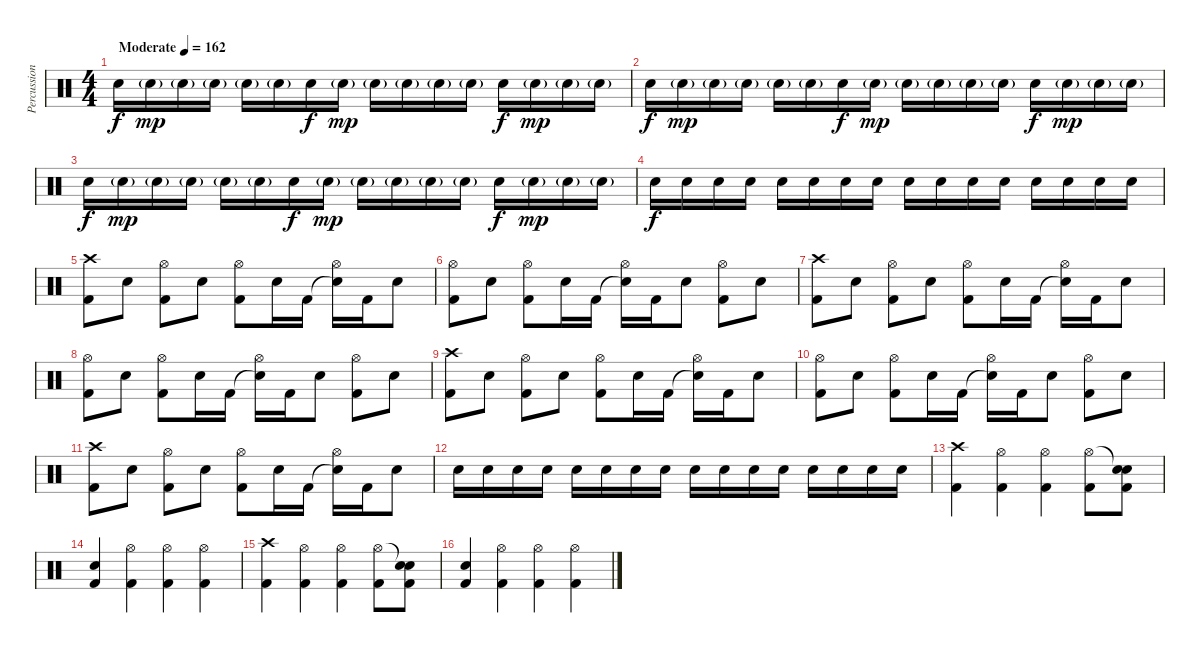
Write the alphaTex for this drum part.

\track ("Percussions" "Percussion") {instrument percussion}
\staff {score}
\articulation defaults
\ts (4 4)
\tempo (162 "Moderate")
\clef neutral
\ks c "Electric Snare (hit)".16{dy f} "Electric Snare (hit)"{g}.16{dy mp} "Electric Snare (hit)"{g}.16 "Electric Snare (hit)"{g}.16 "Electric Snare (hit)"{g}.16 "Electric Snare (hit)"{g}.16 "Electric Snare (hit)".16{dy f} "Electric Snare (hit)"{g}.16{dy mp} "Electric Snare (hit)"{g}.16 "Electric Snare (hit)"{g}.16 "Electric Snare (hit)"{g}.16 "Electric Snare (hit)"{g}.16 "Electric Snare (hit)".16{dy f} "Electric Snare (hit)"{g}.16{dy mp} "Electric Snare (hit)"{g}.16 "Electric Snare (hit)"{g}.16
|
"Electric Snare (hit)".16{dy f} "Electric Snare (hit)"{g}.16{dy mp} "Electric Snare (hit)"{g}.16 "Electric Snare (hit)"{g}.16 "Electric Snare (hit)"{g}.16 "Electric Snare (hit)"{g}.16 "Electric Snare (hit)".16{dy f} "Electric Snare (hit)"{g}.16{dy mp} "Electric Snare (hit)"{g}.16 "Electric Snare (hit)"{g}.16 "Electric Snare (hit)"{g}.16 "Electric Snare (hit)"{g}.16 "Electric Snare (hit)".16{dy f} "Electric Snare (hit)"{g}.16{dy mp} "Electric Snare (hit)"{g}.16 "Electric Snare (hit)"{g}.16 |
"Electric Snare (hit)".16{dy f} "Electric Snare (hit)"{g}.16{dy mp} "Electric Snare (hit)"{g}.16 "Electric Snare (hit)"{g}.16 "Electric Snare (hit)"{g}.16 "Electric Snare (hit)"{g}.16 "Electric Snare (hit)".16{dy f} "Electric Snare (hit)"{g}.16{dy mp} "Electric Snare (hit)"{g}.16 "Electric Snare (hit)"{g}.16 "Electric Snare (hit)"{g}.16 "Electric Snare (hit)"{g}.16 "Electric Snare (hit)".16{dy f} "Electric Snare (hit)"{g}.16{dy mp} "Electric Snare (hit)"{g}.16 "Electric Snare (hit)"{g}.16 |
"Electric Snare (hit)".16{dy f} "Electric Snare (hit)".16 "Electric Snare (hit)".16 "Electric Snare (hit)".16 "Electric Snare (hit)".16 "Electric Snare (hit)".16 "Electric Snare (hit)".16 "Electric Snare (hit)".16 "Electric Snare (hit)".16 "Electric Snare (hit)".16 "Electric Snare (hit)".16 "Electric Snare (hit)".16 "Electric Snare (hit)".16 "Electric Snare (hit)".16 "Electric Snare (hit)".16 "Electric Snare (hit)".16 |
("Kick (hit) 2" "Crash high (hit)").8 "Electric Snare (hit)".8 ("Kick (hit) 2" "Hi-Hat (open)").8 "Electric Snare (hit)".8 ("Kick (hit) 2" "Hi-Hat (open)").8 "Electric Snare (hit)".16 "Kick (hit) 2".16 ("Snare (hit)"{t} "Hi-Hat (open)").16 "Kick (hit) 2".16 "Electric Snare (hit)".8 |
("Kick (hit) 2" "Hi-Hat (open)").8 "Electric Snare (hit)".8 ("Kick (hit) 2" "Hi-Hat (open)").8 "Electric Snare (hit)".16 "Kick (hit) 2".16 ("Snare (hit)"{t} "Hi-Hat (open)").16 "Kick (hit) 2".16 "Electric Snare (hit)".8 ("Kick (hit) 2" "Hi-Hat (open)").8 "Electric Snare (hit)".8 |
("Kick (hit) 2" "Crash high (hit)").8 "Electric Snare (hit)".8 ("Kick (hit) 2" "Hi-Hat (open)").8 "Electric Snare (hit)".8 ("Kick (hit) 2" "Hi-Hat (open)").8 "Electric Snare (hit)".16 "Kick (hit) 2".16 ("Snare (hit)"{t} "Hi-Hat (open)").16 "Kick (hit) 2".16 "Electric Snare (hit)".8 |
("Kick (hit) 2" "Hi-Hat (open)").8 "Electric Snare (hit)".8 ("Kick (hit) 2" "Hi-Hat (open)").8 "Electric Snare (hit)".16 "Kick (hit) 2".16 ("Snare (hit)"{t} "Hi-Hat (open)").16 "Kick (hit) 2".16 "Electric Snare (hit)".8 ("Kick (hit) 2" "Hi-Hat (open)").8 "Electric Snare (hit)".8 |
("Kick (hit) 2" "Crash high (hit)").8 "Electric Snare (hit)".8 ("Kick (hit) 2" "Hi-Hat (open)").8 "Electric Snare (hit)".8 ("Kick (hit) 2" "Hi-Hat (open)").8 "Electric Snare (hit)".16 "Kick (hit) 2".16 ("Snare (hit)"{t} "Hi-Hat (open)").16 "Kick (hit) 2".16 "Electric Snare (hit)".8 |
("Kick (hit) 2" "Hi-Hat (open)").8 "Electric Snare (hit)".8 ("Kick (hit) 2" "Hi-Hat (open)").8 "Electric Snare (hit)".16 "Kick (hit) 2".16 ("Snare (hit)"{t} "Hi-Hat (open)").16 "Kick (hit) 2".16 "Electric Snare (hit)".8 ("Kick (hit) 2" "Hi-Hat (open)").8 "Electric Snare (hit)".8 |
("Kick (hit) 2" "Crash high (hit)").8 "Electric Snare (hit)".8 ("Kick (hit) 2" "Hi-Hat (open)").8 "Electric Snare (hit)".8 ("Kick (hit) 2" "Hi-Hat (open)").8 "Electric Snare (hit)".16 "Kick (hit) 2".16 ("Snare (hit)"{t} "Hi-Hat (open)").16 "Kick (hit) 2".16 "Electric Snare (hit)".8 |
"Electric Snare (hit)".16 "Electric Snare (hit)".16 "Electric Snare (hit)".16 "Electric Snare (hit)".16 "Electric Snare (hit)".16 "Electric Snare (hit)".16 "Electric Snare (hit)".16 "Electric Snare (hit)".16 "Electric Snare (hit)".16 "Electric Snare (hit)".16 "Electric Snare (hit)".16 "Electric Snare (hit)".16 "Electric Snare (hit)".16 "Electric Snare (hit)".16 "Electric Snare (hit)".16 "Electric Snare (hit)".16 |
("Kick (hit) 2" "Crash high (hit)").4 ("Kick (hit) 2" "Hi-Hat (open)").4 ("Kick (hit) 2" "Hi-Hat (open)").4 ("Kick (hit) 2" "Hi-Hat (open)").8 ("Electric Snare (hit)" "Electric Snare (hit)"{t} "Kick (hit) 2").8 |
("Electric Snare (hit)" "Kick (hit) 2").4 ("Kick (hit) 2" "Hi-Hat (open)").4 ("Kick (hit) 2" "Hi-Hat (open)").4 ("Kick (hit) 2" "Hi-Hat (open)").4 |
("Kick (hit) 2" "Crash high (hit)").4 ("Kick (hit) 2" "Hi-Hat (open)").4 ("Kick (hit) 2" "Hi-Hat (open)").4 ("Kick (hit) 2" "Hi-Hat (open)").8 ("Electric Snare (hit)" "Electric Snare (hit)"{t} "Kick (hit) 2").8 |
("Electric Snare (hit)" "Kick (hit) 2").4 ("Kick (hit) 2" "Hi-Hat (open)").4 ("Kick (hit) 2" "Hi-Hat (open)").4 ("Kick (hit) 2" "Hi-Hat (open)").4
